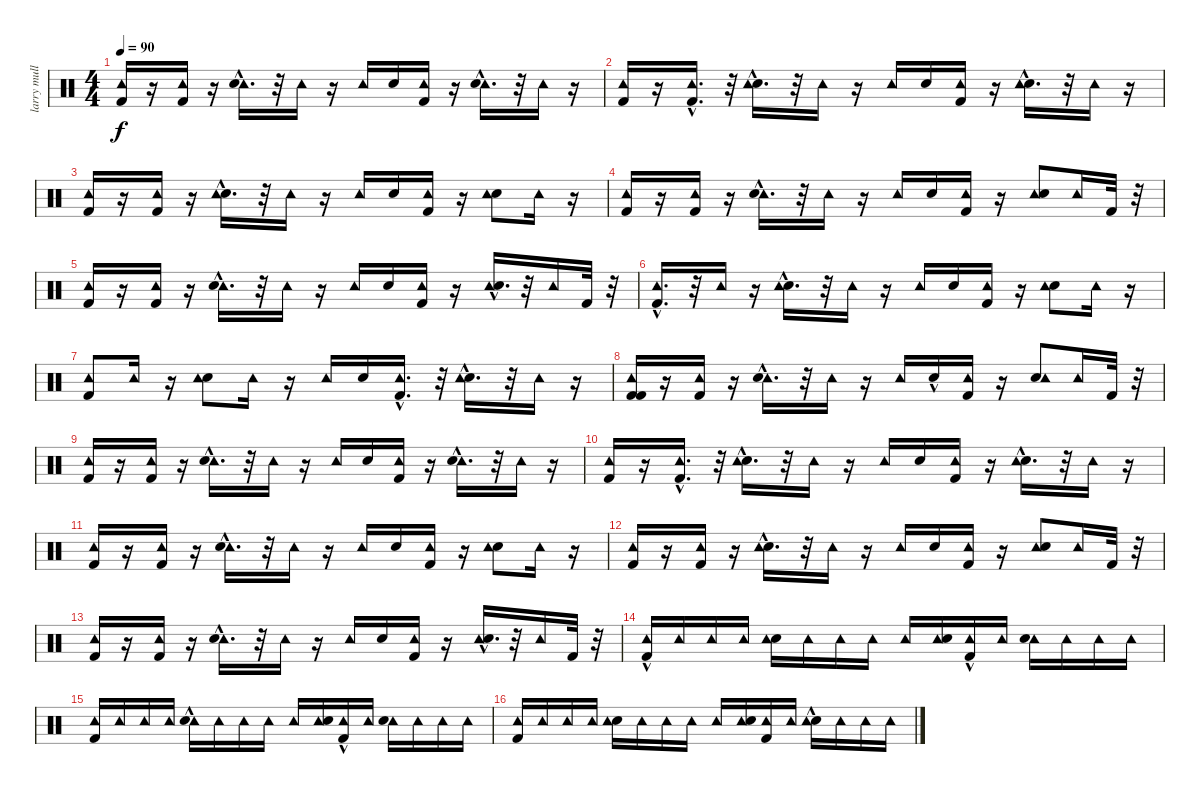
\track ("larry mullen jr" "larry mull") {instrument percussion}
\staff {score}
\articulation defaults
\ts (4 4)
\tempo 90
\clef neutral
\ks c
("Kick (hit) 2" "Tambourine (hit)").16{dy f} r.16 ("Tambourine (hit)" "Kick (hit) 2").16 r.16 ("Tambourine (hit)" "Electric Snare (hit)"{hac}).16{d} r.32 "Tambourine (hit)".16 r.16 "Tambourine (hit)".16 "Electric Snare (hit)".16 ("Kick (hit) 2" "Tambourine (hit)").16 r.16 ("Tambourine (hit)" "Electric Snare (hit)"{hac}).16{d} r.32 "Tambourine (hit)".16 r.16 |
("Tambourine (hit)" "Kick (hit) 2").16 r.16 ("Kick (hit) 2" "Tambourine (hit)"{hac}).16{d} r.32 ("Electric Snare (hit)"{hac} "Tambourine (hit)").16{d} r.32 "Tambourine (hit)".16 r.16 "Tambourine (hit)".16 "Electric Snare (hit)".16 ("Kick (hit) 2" "Tambourine (hit)").16 r.16 ("Electric Snare (hit)"{hac} "Tambourine (hit)").16{d} r.32 "Tambourine (hit)".16 r.16 |
("Tambourine (hit)" "Kick (hit) 2").16 r.16 ("Tambourine (hit)" "Kick (hit) 2").16 r.16 ("Electric Snare (hit)"{hac} "Tambourine (hit)").16{d} r.32 "Tambourine (hit)".16 r.16 "Tambourine (hit)".16 "Electric Snare (hit)".16 ("Tambourine (hit)" "Kick (hit) 2").16 r.16 ("Electric Snare (hit)" "Tambourine (hit)").8 "Tambourine (hit)".16 r.16 |
("Tambourine (hit)" "Kick (hit) 2").16 r.16 ("Tambourine (hit)" "Kick (hit) 2").16 r.16 ("Tambourine (hit)" "Electric Snare (hit)"{hac}).16{d} r.32 "Tambourine (hit)".16 r.16 "Tambourine (hit)".16 "Electric Snare (hit)".16 ("Kick (hit) 2" "Tambourine (hit)").16 r.16 ("Tambourine (hit)" "Electric Snare (hit)").8 "Tambourine (hit)".16 "Kick (hit) 2".32 r.32 |
("Tambourine (hit)" "Kick (hit) 2").16 r.16 ("Kick (hit) 2" "Tambourine (hit)").16 r.16 ("Tambourine (hit)" "Electric Snare (hit)"{hac}).16{d} r.32 "Tambourine (hit)".16 r.16 "Tambourine (hit)".16 "Electric Snare (hit)".16 ("Tambourine (hit)" "Kick (hit) 2").16 r.16 ("Tambourine (hit)" "Electric Snare (hit)"{hac}).16{d} r.32 "Tambourine (hit)".16 "Kick (hit) 2".32 r.32 |
("Tambourine (hit)" "Kick (hit) 2"{hac}).16{d} r.32 "Tambourine (hit)".16 r.16 ("Electric Snare (hit)"{hac} "Tambourine (hit)").16{d} r.32 "Tambourine (hit)".16 r.16 "Tambourine (hit)".16 "Electric Snare (hit)".16 ("Kick (hit) 2" "Tambourine (hit)").16 r.16 ("Electric Snare (hit)" "Tambourine (hit)").8 "Tambourine (hit)".16 r.16 |
("Kick (hit) 2" "Tambourine (hit)").8 "Tambourine (hit)".16 r.16 ("Electric Snare (hit)" "Tambourine (hit)").8 "Tambourine (hit)".16 r.16 "Tambourine (hit)".16 "Electric Snare (hit)".16 ("Kick (hit) 2"{hac} "Tambourine (hit)").16{d} r.32 ("Electric Snare (hit)"{hac} "Tambourine (hit)").16{d} r.32 "Tambourine (hit)".16 r.16 |
("Tambourine (hit)" "Kick (hit) 2" "Kick (hit) 2").16 r.16 ("Kick (hit) 2" "Tambourine (hit)").16 r.16 ("Tambourine (hit)" "Electric Snare (hit)"{hac}).16{d} r.32 "Tambourine (hit)".16 r.16 "Tambourine (hit)".16 "Electric Snare (hit)"{hac}.16 ("Kick (hit) 2" "Tambourine (hit)").16 r.16 ("Electric Snare (hit)" "Tambourine (hit)").8 "Tambourine (hit)".16 "Kick (hit) 2".32 r.32 |
("Tambourine (hit)" "Kick (hit) 2").16 r.16 ("Tambourine (hit)" "Kick (hit) 2").16 r.16 ("Tambourine (hit)" "Electric Snare (hit)"{hac}).16{d} r.32 "Tambourine (hit)".16 r.16 "Tambourine (hit)".16 "Electric Snare (hit)".16 ("Tambourine (hit)" "Kick (hit) 2").16 r.16 ("Tambourine (hit)" "Electric Snare (hit)"{hac}).16{d} r.32 "Tambourine (hit)".16 r.16 |
("Tambourine (hit)" "Kick (hit) 2").16 r.16 ("Kick (hit) 2" "Tambourine (hit)"{hac}).16{d} r.32 ("Electric Snare (hit)"{hac} "Tambourine (hit)").16{d} r.32 "Tambourine (hit)".16 r.16 "Tambourine (hit)".16 "Electric Snare (hit)".16 ("Kick (hit) 2" "Tambourine (hit)").16 r.16 ("Electric Snare (hit)"{hac} "Tambourine (hit)").16{d} r.32 "Tambourine (hit)".16 r.16 |
("Tambourine (hit)" "Kick (hit) 2").16 r.16 ("Tambourine (hit)" "Kick (hit) 2").16 r.16 ("Tambourine (hit)" "Electric Snare (hit)"{hac}).16{d} r.32 "Tambourine (hit)".16 r.16 "Tambourine (hit)".16 "Electric Snare (hit)".16 ("Tambourine (hit)" "Kick (hit) 2").16 r.16 ("Electric Snare (hit)" "Tambourine (hit)").8 "Tambourine (hit)".16 r.16 |
("Kick (hit) 2" "Tambourine (hit)").16 r.16 ("Tambourine (hit)" "Kick (hit) 2").16 r.16 ("Electric Snare (hit)"{hac} "Tambourine (hit)").16{d} r.32 "Tambourine (hit)".16 r.16 "Tambourine (hit)".16 "Electric Snare (hit)".16 ("Tambourine (hit)" "Kick (hit) 2").16 r.16 ("Tambourine (hit)" "Electric Snare (hit)").8 "Tambourine (hit)".16 "Kick (hit) 2".32 r.32 |
("Kick (hit) 2" "Tambourine (hit)").16 r.16 ("Tambourine (hit)" "Kick (hit) 2").16 r.16 ("Tambourine (hit)" "Electric Snare (hit)"{hac}).16{d} r.32 "Tambourine (hit)".16 r.16 "Tambourine (hit)".16 "Electric Snare (hit)".16 ("Kick (hit) 2" "Tambourine (hit)").16 r.16 ("Tambourine (hit)" "Electric Snare (hit)"{hac}).16{d} r.32 "Tambourine (hit)".16 "Kick (hit) 2".32 r.32 |
("Kick (hit) 2"{hac} "Tambourine (hit)").16 "Tambourine (hit)".16 "Tambourine (hit)".16 "Tambourine (hit)".16 ("Electric Snare (hit)" "Tambourine (hit)").16 "Tambourine (hit)".16 "Tambourine (hit)".16 "Tambourine (hit)".16 "Tambourine (hit)".16 ("Tambourine (hit)" "Electric Snare (hit)").16 ("Kick (hit) 2"{hac} "Tambourine (hit)").16 "Tambourine (hit)".16 ("Tambourine (hit)" "Electric Snare (hit)").16 "Tambourine (hit)".16 "Tambourine (hit)".16 "Tambourine (hit)".16 |
("Kick (hit) 2" "Tambourine (hit)").16 "Tambourine (hit)".16 "Tambourine (hit)".16 "Tambourine (hit)".16 ("Tambourine (hit)" "Electric Snare (hit)"{hac}).16 "Tambourine (hit)".16 "Tambourine (hit)".16 "Tambourine (hit)".16 "Tambourine (hit)".16 ("Tambourine (hit)" "Electric Snare (hit)").16 ("Kick (hit) 2"{hac} "Tambourine (hit)").16 "Tambourine (hit)".16 ("Tambourine (hit)" "Electric Snare (hit)").16 "Tambourine (hit)".16 "Tambourine (hit)".16 "Tambourine (hit)".16 |
("Kick (hit) 2" "Tambourine (hit)").16 "Tambourine (hit)".16 "Tambourine (hit)".16 "Tambourine (hit)".16 ("Electric Snare (hit)" "Tambourine (hit)").16 "Tambourine (hit)".16 "Tambourine (hit)".16 "Tambourine (hit)".16 "Tambourine (hit)".16 ("Tambourine (hit)" "Electric Snare (hit)").16 ("Tambourine (hit)" "Kick (hit) 2").16 "Tambourine (hit)".16 ("Electric Snare (hit)"{hac} "Tambourine (hit)").16 "Tambourine (hit)".16 "Tambourine (hit)".16 "Tambourine (hit)".16
